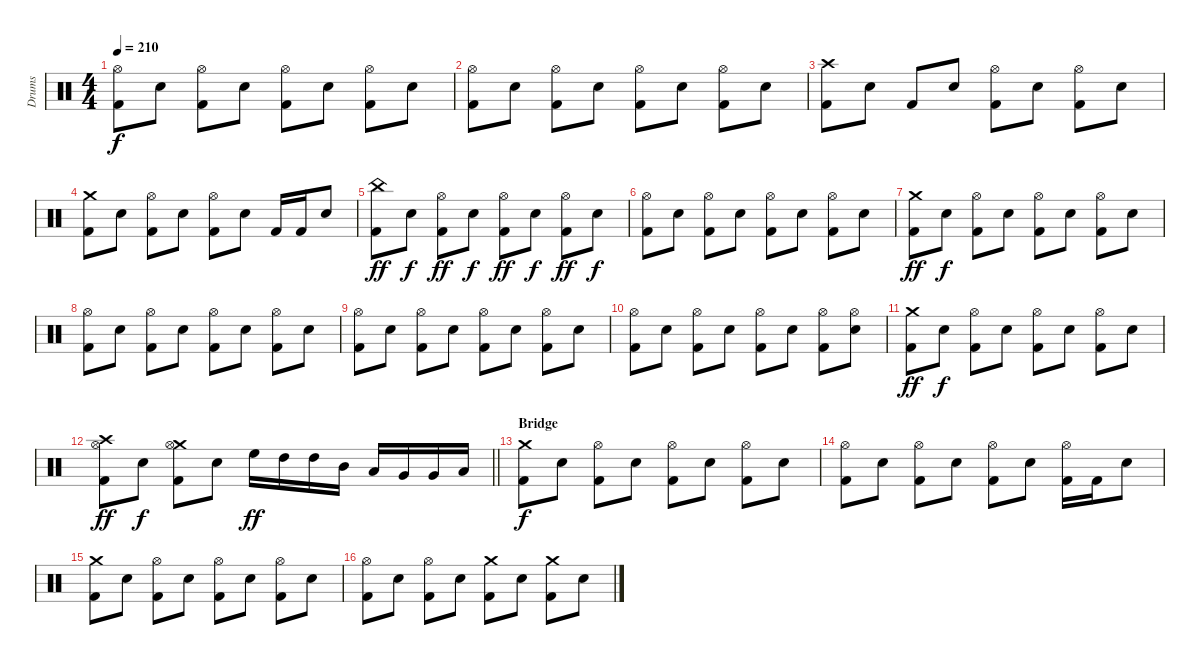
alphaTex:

\track ("Drums" "Drums") {instrument percussion}
\staff {score}
\articulation defaults
\ts (4 4)
\tempo 210
\clef neutral
\ks c
("Hi-Hat (open)" "Kick (hit) 2").8{dy f} "Snare (hit) 2".8 ("Hi-Hat (open)" "Kick (hit) 2").8 "Snare (hit) 2".8 ("Hi-Hat (open)" "Kick (hit) 2").8 "Snare (hit) 2".8 ("Hi-Hat (open)" "Kick (hit) 2").8 "Snare (hit) 2".8 |
("Hi-Hat (open)" "Kick (hit) 2").8 "Snare (hit) 2".8 ("Hi-Hat (open)" "Kick (hit) 2").8 "Snare (hit) 2".8 ("Hi-Hat (open)" "Kick (hit) 2").8 "Snare (hit) 2".8 ("Hi-Hat (open)" "Kick (hit) 2").8 "Snare (hit) 2".8 |
("Crash high (hit)" "Kick (hit) 2").8 "Snare (hit) 2".8 "Kick (hit) 2".8 "Snare (hit) 2".8 ("Hi-Hat (open)" "Kick (hit) 2").8 "Snare (hit) 2".8 ("Hi-Hat (open)" "Kick (hit) 2").8 "Snare (hit) 2".8 |
("Crash medium (hit)" "Kick (hit) 2").8 "Snare (hit) 2".8 ("Hi-Hat (open)" "Kick (hit) 2").8 "Snare (hit) 2".8 ("Hi-Hat (open)" "Kick (hit) 2").8 "Snare (hit) 2".8 "Kick (hit) 2".16 "Kick (hit) 2".16 "Snare (hit) 2".8 |
("China (hit)" "Kick (hit) 2").8{dy ff} "Snare (hit) 2".8{dy f} ("Hi-Hat (open)" "Kick (hit) 2").8{dy ff} "Snare (hit) 2".8{dy f} ("Hi-Hat (open)" "Kick (hit) 2").8{dy ff} "Snare (hit) 2".8{dy f} ("Hi-Hat (open)" "Kick (hit) 2").8{dy ff} "Snare (hit) 2".8{dy f} |
("Hi-Hat (open)" "Kick (hit) 2").8 "Snare (hit) 2".8 ("Hi-Hat (open)" "Kick (hit) 2").8 "Snare (hit) 2".8 ("Hi-Hat (open)" "Kick (hit) 2").8 "Snare (hit) 2".8 ("Hi-Hat (open)" "Kick (hit) 2").8 "Snare (hit) 2".8 |
("Crash medium (hit)" "Kick (hit) 2").8{dy ff} "Snare (hit) 2".8{dy f} ("Hi-Hat (open)" "Kick (hit) 2").8 "Snare (hit) 2".8 ("Hi-Hat (open)" "Kick (hit) 2").8 "Snare (hit) 2".8 ("Hi-Hat (open)" "Kick (hit) 2").8 "Snare (hit) 2".8 |
("Hi-Hat (open)" "Kick (hit) 2").8 "Snare (hit) 2".8 ("Hi-Hat (open)" "Kick (hit) 2").8 "Snare (hit) 2".8 ("Hi-Hat (open)" "Kick (hit) 2").8 "Snare (hit) 2".8 ("Hi-Hat (open)" "Kick (hit) 2").8 "Snare (hit) 2".8 |
("Hi-Hat (open)" "Kick (hit) 2").8 "Snare (hit) 2".8 ("Hi-Hat (open)" "Kick (hit) 2").8 "Snare (hit) 2".8 ("Hi-Hat (open)" "Kick (hit) 2").8 "Snare (hit) 2".8 ("Hi-Hat (open)" "Kick (hit) 2").8 "Snare (hit) 2".8 |
("Hi-Hat (open)" "Kick (hit) 2").8 "Snare (hit) 2".8 ("Hi-Hat (open)" "Kick (hit) 2").8 "Snare (hit) 2".8 ("Hi-Hat (open)" "Kick (hit) 2").8 "Snare (hit) 2".8 ("Hi-Hat (open)" "Kick (hit) 2").8 ("Hi-Hat (open)" "Snare (hit) 2").8 |
("Crash medium (hit)" "Kick (hit) 2").8{dy ff} "Snare (hit) 2".8{dy f} ("Hi-Hat (open)" "Kick (hit) 2").8 "Snare (hit) 2".8 ("Hi-Hat (open)" "Kick (hit) 2").8 "Snare (hit) 2".8 ("Hi-Hat (open)" "Kick (hit) 2").8 "Snare (hit) 2".8 |
\barLineRight lightlight
("Crash high (hit)" "Hi-Hat (open)" "Kick (hit) 2").8{dy ff} "Snare (hit) 2".8{dy f} ("Crash medium (hit)" "Hi-Hat (open)" "Kick (hit) 2").8 "Snare (hit) 2".8 "High Floor Tom (hit)".16{dy ff} "High Tom (hit)".16 "High Tom (hit)".16 "Mid Tom (hit)".16 "Low Tom (hit)".16 "Very Low Tom (hit)".16 "Very Low Tom (hit)".16 "Low Floor Tom (hit)".16 |
\section ("" "Bridge")
("Crash medium (hit)" "Kick (hit) 2").8{dy f} "Snare (hit) 2".8 ("Hi-Hat (open)" "Kick (hit) 2").8 "Snare (hit) 2".8 ("Hi-Hat (open)" "Kick (hit) 2").8 "Snare (hit) 2".8 ("Hi-Hat (open)" "Kick (hit) 2").8 "Snare (hit) 2".8 |
("Hi-Hat (open)" "Kick (hit) 2").8 "Snare (hit) 2".8 ("Hi-Hat (open)" "Kick (hit) 2").8 "Snare (hit) 2".8 ("Hi-Hat (open)" "Kick (hit) 2").8 "Snare (hit) 2".8 ("Hi-Hat (open)" "Kick (hit) 2").16 "Kick (hit) 2".16 "Snare (hit) 2".8 |
("Crash medium (hit)" "Kick (hit) 2").8 "Snare (hit) 2".8 ("Hi-Hat (open)" "Kick (hit) 2").8 "Snare (hit) 2".8 ("Hi-Hat (open)" "Kick (hit) 2").8 "Snare (hit) 2".8 ("Hi-Hat (open)" "Kick (hit) 2").8 "Snare (hit) 2".8 |
("Hi-Hat (open)" "Kick (hit) 2").8 "Snare (hit) 2".8 ("Hi-Hat (open)" "Kick (hit) 2").8 "Snare (hit) 2".8 ("Crash medium (hit)" "Kick (hit) 2").8 "Snare (hit) 2".8 ("Crash medium (hit)" "Kick (hit) 2").8 "Snare (hit) 2".8
